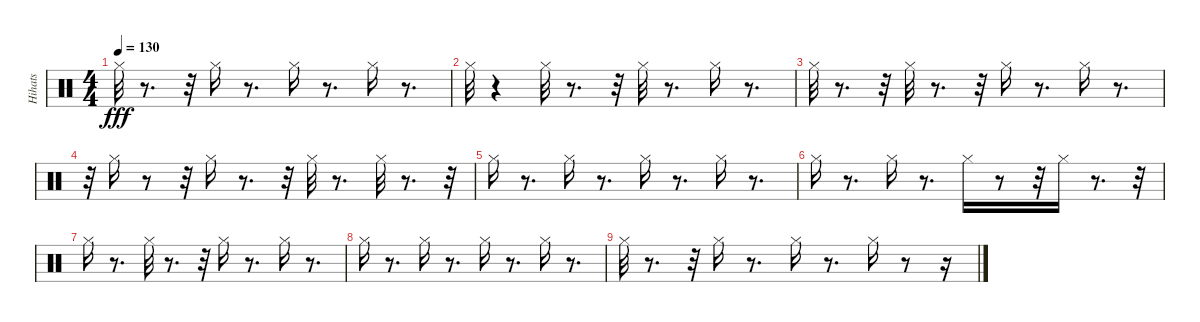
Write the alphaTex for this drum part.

\track ("Hihats" "Hihats") {instrument percussion}
\staff {score}
\articulation defaults
\ts (4 4)
\tempo 130
\clef neutral
\ks c "Hi-Hat (closed)".32{dy fff}
r.8{d} r.32 "Hi-Hat (closed)".16 r.8{d} "Hi-Hat (closed)".16 r.8{d} "Hi-Hat (closed)".16 r.8{d} |
"Hi-Hat (closed)".32 r.4 "Hi-Hat (closed)".32 r.8{d} r.32 "Hi-Hat (closed)".32 r.8{d} "Hi-Hat (closed)".16 r.8{d} |
"Hi-Hat (closed)".32 r.8{d} r.32 "Hi-Hat (closed)".32 r.8{d} r.32 "Hi-Hat (closed)".16 r.8{d} "Hi-Hat (closed)".16 r.8{d} |
r.32 "Hi-Hat (closed)".16 r.8 r.32 "Hi-Hat (closed)".16 r.8{d} r.32 "Hi-Hat (closed)".32 r.8{d} "Hi-Hat (closed)".32 r.8{d} r.32 |
"Hi-Hat (closed)".16 r.8{d} "Hi-Hat (closed)".16 r.8{d} "Hi-Hat (closed)".16 r.8{d} "Hi-Hat (closed)".16 r.8{d} |
"Hi-Hat (closed)".16 r.8{d} "Hi-Hat (closed)".16 r.8{d} "Hi-Hat (closed)".16 r.8 r.32 "Hi-Hat (closed)".16 r.8{d} r.32 |
"Hi-Hat (closed)".16 r.8{d} "Hi-Hat (closed)".32 r.8{d} r.32 "Hi-Hat (closed)".16 r.8{d} "Hi-Hat (closed)".16 r.8{d} |
"Hi-Hat (closed)".16 r.8{d} "Hi-Hat (closed)".16 r.8{d} "Hi-Hat (closed)".16 r.8{d} "Hi-Hat (closed)".16 r.8{d} |
"Hi-Hat (closed)".32 r.8{d} r.32 "Hi-Hat (closed)".16 r.8{d} "Hi-Hat (closed)".16 r.8{d} "Hi-Hat (closed)".16 r.8 r.16
